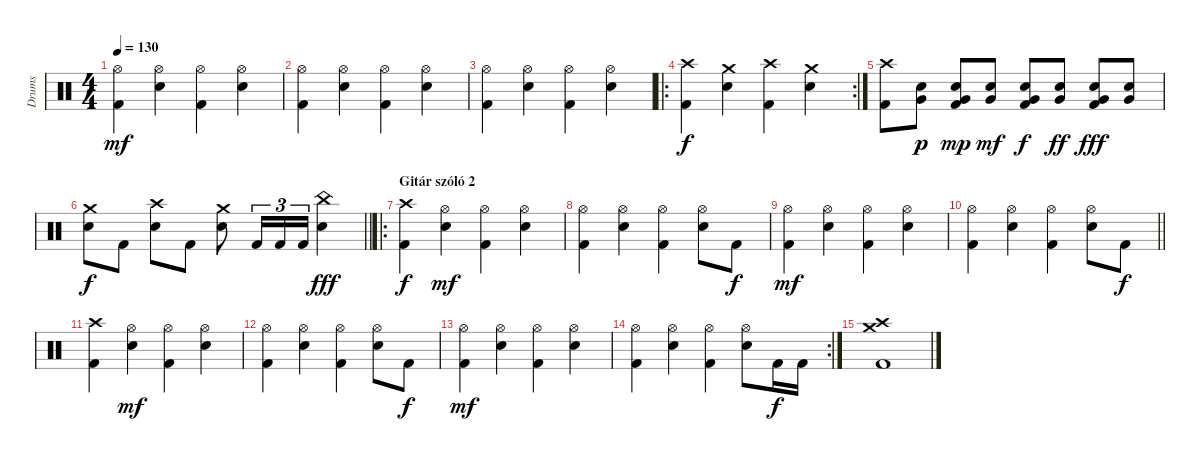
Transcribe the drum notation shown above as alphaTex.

\track ("Drums" "Drums") {instrument percussion}
\staff {score}
\articulation defaults
\ts (4 4)
\tempo 130
\clef neutral
\ks c
("Hi-Hat (open)" "Kick (hit) 2").4{dy mf} ("Hi-Hat (open)" "Electric Snare (hit)").4 ("Hi-Hat (open)" "Kick (hit) 2").4 ("Hi-Hat (open)" "Electric Snare (hit)").4 |
("Hi-Hat (open)" "Kick (hit) 2").4 ("Hi-Hat (open)" "Electric Snare (hit)").4 ("Hi-Hat (open)" "Kick (hit) 2").4 ("Hi-Hat (open)" "Electric Snare (hit)").4 |
("Hi-Hat (open)" "Kick (hit) 2").4 ("Hi-Hat (open)" "Electric Snare (hit)").4 ("Hi-Hat (open)" "Kick (hit) 2").4 ("Hi-Hat (open)" "Electric Snare (hit)").4 |
\ro
\rc 2
("Crash high (hit)" "Kick (hit) 2").4{dy f} ("Crash medium (hit)" "Electric Snare (hit)").4 ("Crash high (hit)" "Kick (hit) 2").4 ("Crash medium (hit)" "Electric Snare (hit)").4 |
("Crash high (hit)" "Kick (hit) 2").8 ("Electric Snare (hit)" "Very Low Tom (hit)").8{dy p} ("Electric Snare (hit)" "Very Low Tom (hit)" "Kick (hit) 2").8{dy mp} ("Electric Snare (hit)" "Very Low Tom (hit)").8{dy mf} ("Electric Snare (hit)" "Very Low Tom (hit)" "Kick (hit) 2").8{dy f} ("Electric Snare (hit)" "Very Low Tom (hit)").8{dy ff} ("Electric Snare (hit)" "Very Low Tom (hit)" "Kick (hit) 2").8{dy fff} ("Electric Snare (hit)" "Very Low Tom (hit)").8 |
\barLineRight lightlight
("Crash medium (hit)" "Electric Snare (hit)").8{dy f} "Kick (hit) 2".8 ("Crash high (hit)" "Electric Snare (hit)").8 "Kick (hit) 2".8 ("Crash medium (hit)" "Electric Snare (hit)").8 "Kick (hit) 2".16{tu (3 2)} "Kick (hit) 2".16{tu (3 2)} "Kick (hit) 2".16{tu (3 2)} ("China (hit)" "Electric Snare (hit)").4{dy fff} |
\ro
\section ("" "Gitár szóló 2")
("Crash high (hit)" "Kick (hit) 2").4{dy f} ("Hi-Hat (open)" "Electric Snare (hit)").4{dy mf} ("Hi-Hat (open)" "Kick (hit) 2").4 ("Hi-Hat (open)" "Electric Snare (hit)").4 |
("Hi-Hat (open)" "Kick (hit) 2").4 ("Hi-Hat (open)" "Electric Snare (hit)").4 ("Hi-Hat (open)" "Kick (hit) 2").4 ("Hi-Hat (open)" "Electric Snare (hit)").8 "Kick (hit) 2".8{dy f} |
("Hi-Hat (open)" "Kick (hit) 2").4{dy mf} ("Hi-Hat (open)" "Electric Snare (hit)").4 ("Hi-Hat (open)" "Kick (hit) 2").4 ("Hi-Hat (open)" "Electric Snare (hit)").4 |
\barLineRight lightlight
("Hi-Hat (open)" "Kick (hit) 2").4 ("Hi-Hat (open)" "Electric Snare (hit)").4 ("Hi-Hat (open)" "Kick (hit) 2").4 ("Hi-Hat (open)" "Electric Snare (hit)").8 "Kick (hit) 2".8{dy f} |
("Crash high (hit)" "Kick (hit) 2").4 ("Hi-Hat (open)" "Electric Snare (hit)").4{dy mf} ("Hi-Hat (open)" "Kick (hit) 2").4 ("Hi-Hat (open)" "Electric Snare (hit)").4 |
("Hi-Hat (open)" "Kick (hit) 2").4 ("Hi-Hat (open)" "Electric Snare (hit)").4 ("Hi-Hat (open)" "Kick (hit) 2").4 ("Hi-Hat (open)" "Electric Snare (hit)").8 "Kick (hit) 2".8{dy f} |
("Hi-Hat (open)" "Kick (hit) 2").4{dy mf} ("Hi-Hat (open)" "Electric Snare (hit)").4 ("Hi-Hat (open)" "Kick (hit) 2").4 ("Hi-Hat (open)" "Electric Snare (hit)").4 |
\rc 2
("Hi-Hat (open)" "Kick (hit) 2").4 ("Hi-Hat (open)" "Electric Snare (hit)").4 ("Hi-Hat (open)" "Kick (hit) 2").4 ("Hi-Hat (open)" "Electric Snare (hit)").8 "Kick (hit) 2".16{dy f} "Kick (hit) 2".16 |
("Crash high (hit)" "Crash medium (hit)" "Kick (hit) 2").1
